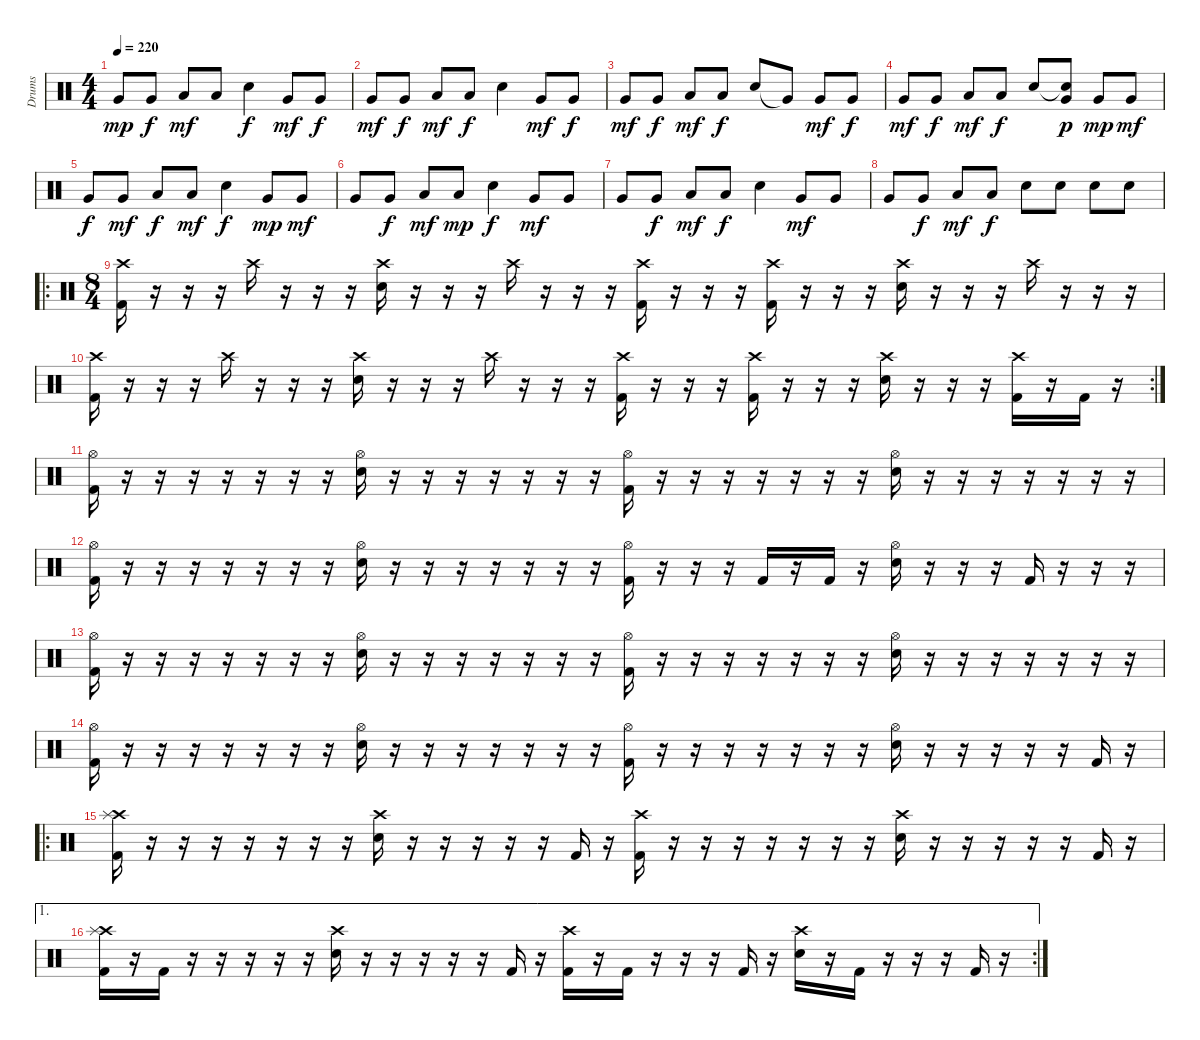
\track ("Drums" "Drums") {instrument percussion}
\staff {score}
\articulation defaults
\ts (4 4)
\tempo 220
\clef neutral
\ks c "Very Low Tom (hit)".8{dy mp} "Very Low Tom (hit)".8{dy f} "Low Floor Tom (hit)".8{dy mf} "Low Floor Tom (hit)".8 "Snare (hit) 2".4{dy f} "Very Low Tom (hit)".8{dy mf} "Very Low Tom (hit)".8{dy f}
|
"Very Low Tom (hit)".8{dy mf} "Very Low Tom (hit)".8{dy f} "Low Floor Tom (hit)".8{dy mf} "Low Floor Tom (hit)".8{dy f} "Snare (hit) 2".4 "Very Low Tom (hit)".8{dy mf} "Very Low Tom (hit)".8{dy f} |
"Very Low Tom (hit)".8{dy mf} "Very Low Tom (hit)".8{dy f} "Low Floor Tom (hit)".8{dy mf} "Low Floor Tom (hit)".8{dy f} "Snare (hit) 2".8 "Very Low Tom (hit)"{t}.8 "Very Low Tom (hit)".8{dy mf} "Very Low Tom (hit)".8{dy f} |
"Very Low Tom (hit)".8{dy mf} "Very Low Tom (hit)".8{dy f} "Low Floor Tom (hit)".8{dy mf} "Low Floor Tom (hit)".8{dy f} "Snare (hit) 2".8 ("Snare (hit)"{t} "Very Low Tom (hit)").8{dy p} "Very Low Tom (hit)".8{dy mp} "Very Low Tom (hit)".8{dy mf} |
"Very Low Tom (hit)".8{dy f} "Very Low Tom (hit)".8{dy mf} "Low Floor Tom (hit)".8{dy f} "Low Floor Tom (hit)".8{dy mf} "Snare (hit) 2".4{dy f} "Very Low Tom (hit)".8{dy mp} "Very Low Tom (hit)".8{dy mf} |
"Very Low Tom (hit)".8 "Very Low Tom (hit)".8{dy f} "Low Floor Tom (hit)".8{dy mf} "Low Floor Tom (hit)".8{dy mp} "Snare (hit) 2".4{dy f} "Very Low Tom (hit)".8{dy mf} "Very Low Tom (hit)".8 |
"Very Low Tom (hit)".8 "Very Low Tom (hit)".8{dy f} "Low Floor Tom (hit)".8{dy mf} "Low Floor Tom (hit)".8{dy f} "Snare (hit) 2".4 "Very Low Tom (hit)".8{dy mf} "Very Low Tom (hit)".8 |
"Very Low Tom (hit)".8 "Very Low Tom (hit)".8{dy f} "Low Floor Tom (hit)".8{dy mf} "Low Floor Tom (hit)".8{dy f} "Snare (hit) 2".8 "Snare (hit) 2".8 "Snare (hit) 2".8 "Snare (hit) 2".8 |
\ro
\ts (8 4)
("Crash high (hit)" "Kick (hit) 2").16 r.16 r.16 r.16 "Crash high (hit)".16 r.16 r.16 r.16 ("Crash high (hit)" "Snare (hit) 2").16 r.16 r.16 r.16 "Crash high (hit)".16 r.16 r.16 r.16 ("Crash high (hit)" "Kick (hit) 2").16 r.16 r.16 r.16 ("Crash high (hit)" "Kick (hit) 2").16 r.16 r.16 r.16 ("Crash high (hit)" "Snare (hit) 2").16 r.16 r.16 r.16 "Crash high (hit)".16 r.16 r.16 r.16 |
\rc 2
("Crash high (hit)" "Kick (hit) 2").16 r.16 r.16 r.16 "Crash high (hit)".16 r.16 r.16 r.16 ("Crash high (hit)" "Snare (hit) 2").16 r.16 r.16 r.16 "Crash high (hit)".16 r.16 r.16 r.16 ("Crash high (hit)" "Kick (hit) 2").16 r.16 r.16 r.16 ("Crash high (hit)" "Kick (hit) 2").16 r.16 r.16 r.16 ("Crash high (hit)" "Snare (hit) 2").16 r.16 r.16 r.16 ("Crash high (hit)" "Kick (hit) 2").16 r.16 "Kick (hit) 2".16 r.16 |
("Hi-Hat (open)" "Kick (hit) 2").16 r.16 r.16 r.16 r.16 r.16 r.16 r.16 ("Hi-Hat (open)" "Snare (hit) 2").16 r.16 r.16 r.16 r.16 r.16 r.16 r.16 ("Hi-Hat (open)" "Kick (hit) 2").16 r.16 r.16 r.16 r.16 r.16 r.16 r.16 ("Hi-Hat (open)" "Snare (hit) 2").16 r.16 r.16 r.16 r.16 r.16 r.16 r.16 |
("Hi-Hat (open)" "Kick (hit) 2").16 r.16 r.16 r.16 r.16 r.16 r.16 r.16 ("Hi-Hat (open)" "Snare (hit) 2").16 r.16 r.16 r.16 r.16 r.16 r.16 r.16 ("Hi-Hat (open)" "Kick (hit) 2").16 r.16 r.16 r.16 "Kick (hit) 2".16 r.16 "Kick (hit) 2".16 r.16 ("Hi-Hat (open)" "Snare (hit) 2").16 r.16 r.16 r.16 "Kick (hit) 2".16 r.16 r.16 r.16 |
("Hi-Hat (open)" "Kick (hit) 2").16 r.16 r.16 r.16 r.16 r.16 r.16 r.16 ("Hi-Hat (open)" "Snare (hit) 2").16 r.16 r.16 r.16 r.16 r.16 r.16 r.16 ("Hi-Hat (open)" "Kick (hit) 2").16 r.16 r.16 r.16 r.16 r.16 r.16 r.16 ("Hi-Hat (open)" "Snare (hit) 2").16 r.16 r.16 r.16 r.16 r.16 r.16 r.16 |
("Hi-Hat (open)" "Kick (hit) 2").16 r.16 r.16 r.16 r.16 r.16 r.16 r.16 ("Hi-Hat (open)" "Snare (hit) 2").16 r.16 r.16 r.16 r.16 r.16 r.16 r.16 ("Hi-Hat (open)" "Kick (hit) 2").16 r.16 r.16 r.16 r.16 r.16 r.16 r.16 ("Hi-Hat (open)" "Snare (hit) 2").16 r.16 r.16 r.16 r.16 r.16 "Kick (hit) 2".16 r.16 |
\ro
("Crash high (hit)" "Splash (hit)" "Kick (hit) 2").16 r.16 r.16 r.16 r.16 r.16 r.16 r.16 ("Crash high (hit)" "Snare (hit) 2").16 r.16 r.16 r.16 r.16 r.16 "Kick (hit) 2".16 r.16 ("Crash high (hit)" "Kick (hit) 2").16 r.16 r.16 r.16 r.16 r.16 r.16 r.16 ("Crash high (hit)" "Snare (hit) 2").16 r.16 r.16 r.16 r.16 r.16 "Kick (hit) 2".16 r.16 |
\ae 1
\rc 2
("Crash high (hit)" "Splash (hit)" "Kick (hit) 2").16 r.16 "Kick (hit) 2".16 r.16 r.16 r.16 r.16 r.16 ("Crash high (hit)" "Snare (hit) 2").16 r.16 r.16 r.16 r.16 r.16 "Kick (hit) 2".16 r.16 ("Crash high (hit)" "Kick (hit) 2").16 r.16 "Kick (hit) 2".16 r.16 r.16 r.16 "Kick (hit) 2".16 r.16 ("Crash high (hit)" "Snare (hit) 2").16 r.16 "Kick (hit) 2".16 r.16 r.16 r.16 "Kick (hit) 2".16 r.16
